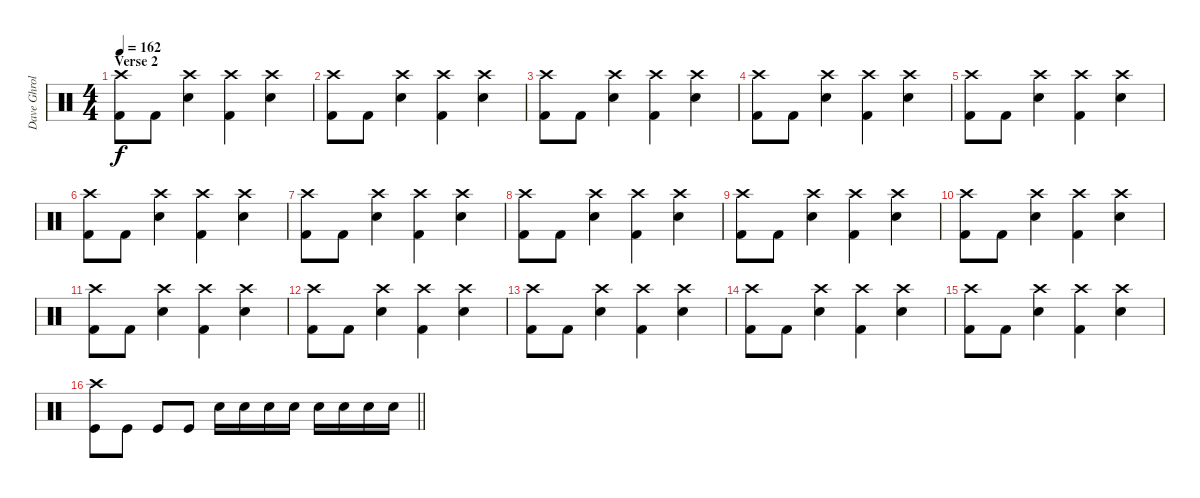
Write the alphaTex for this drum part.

\track ("Dave Ghrol" "Dave Ghrol") {instrument percussion}
\staff {score}
\articulation defaults
\ts (4 4)
\section ("" "Verse 2")
\tempo 162
\clef neutral
\ks c
("Crash high (hit)" "Kick (hit) 2").8{dy f} "Kick (hit) 2".8 ("Crash high (hit)" "Snare (hit) 2").4 ("Crash high (hit)" "Kick (hit) 2").4 ("Crash high (hit)" "Snare (hit) 2").4 |
("Crash high (hit)" "Kick (hit) 2").8 "Kick (hit) 2".8 ("Crash high (hit)" "Snare (hit) 2").4 ("Crash high (hit)" "Kick (hit) 2").4 ("Crash high (hit)" "Snare (hit) 2").4 |
("Crash high (hit)" "Kick (hit) 2").8 "Kick (hit) 2".8 ("Crash high (hit)" "Snare (hit) 2").4 ("Crash high (hit)" "Kick (hit) 2").4 ("Crash high (hit)" "Snare (hit) 2").4 |
("Crash high (hit)" "Kick (hit) 2").8 "Kick (hit) 2".8 ("Crash high (hit)" "Snare (hit) 2").4 ("Crash high (hit)" "Kick (hit) 2").4 ("Crash high (hit)" "Snare (hit) 2").4 |
("Crash high (hit)" "Kick (hit) 2").8 "Kick (hit) 2".8 ("Crash high (hit)" "Snare (hit) 2").4 ("Crash high (hit)" "Kick (hit) 2").4 ("Crash high (hit)" "Snare (hit) 2").4 |
("Crash high (hit)" "Kick (hit) 2").8 "Kick (hit) 2".8 ("Crash high (hit)" "Snare (hit) 2").4 ("Crash high (hit)" "Kick (hit) 2").4 ("Crash high (hit)" "Snare (hit) 2").4 |
("Crash high (hit)" "Kick (hit) 2").8 "Kick (hit) 2".8 ("Crash high (hit)" "Snare (hit) 2").4 ("Crash high (hit)" "Kick (hit) 2").4 ("Crash high (hit)" "Snare (hit) 2").4 |
("Crash high (hit)" "Kick (hit) 2").8 "Kick (hit) 2".8 ("Crash high (hit)" "Snare (hit) 2").4 ("Crash high (hit)" "Kick (hit) 2").4 ("Crash high (hit)" "Snare (hit) 2").4 |
("Crash high (hit)" "Kick (hit) 2").8 "Kick (hit) 2".8 ("Crash high (hit)" "Snare (hit) 2").4 ("Crash high (hit)" "Kick (hit) 2").4 ("Crash high (hit)" "Snare (hit) 2").4 |
("Crash high (hit)" "Kick (hit) 2").8 "Kick (hit) 2".8 ("Crash high (hit)" "Snare (hit) 2").4 ("Crash high (hit)" "Kick (hit) 2").4 ("Crash high (hit)" "Snare (hit) 2").4 |
("Crash high (hit)" "Kick (hit) 2").8 "Kick (hit) 2".8 ("Crash high (hit)" "Snare (hit) 2").4 ("Crash high (hit)" "Kick (hit) 2").4 ("Crash high (hit)" "Snare (hit) 2").4 |
("Crash high (hit)" "Kick (hit) 2").8 "Kick (hit) 2".8 ("Crash high (hit)" "Snare (hit) 2").4 ("Crash high (hit)" "Kick (hit) 2").4 ("Crash high (hit)" "Snare (hit) 2").4 |
("Crash high (hit)" "Kick (hit) 2").8 "Kick (hit) 2".8 ("Crash high (hit)" "Snare (hit) 2").4 ("Crash high (hit)" "Kick (hit) 2").4 ("Crash high (hit)" "Snare (hit) 2").4 |
("Crash high (hit)" "Kick (hit) 2").8 "Kick (hit) 2".8 ("Crash high (hit)" "Snare (hit) 2").4 ("Crash high (hit)" "Kick (hit) 2").4 ("Crash high (hit)" "Snare (hit) 2").4 |
("Crash high (hit)" "Kick (hit) 2").8 "Kick (hit) 2".8 ("Crash high (hit)" "Snare (hit) 2").4 ("Crash high (hit)" "Kick (hit) 2").4 ("Crash high (hit)" "Snare (hit) 2").4 |
\barLineRight lightlight
("Crash high (hit)" "Kick (hit)").8 "Kick (hit)".8 "Kick (hit)".8 "Kick (hit)".8 "Snare (hit) 2".16 "Snare (hit) 2".16 "Snare (hit) 2".16 "Snare (hit) 2".16 "Snare (hit) 2".16 "Snare (hit) 2".16 "Snare (hit) 2".16 "Snare (hit) 2".16
